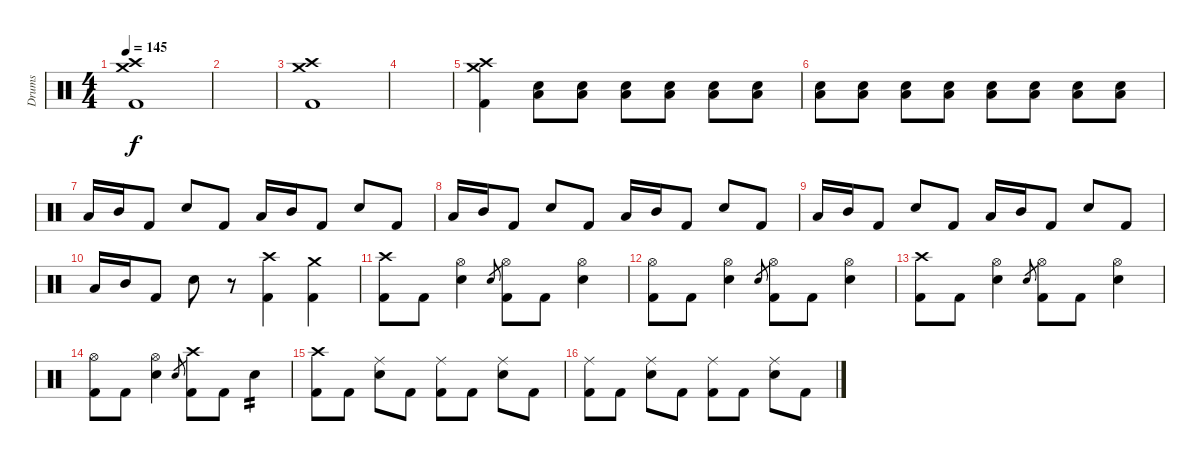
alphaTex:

\track ("Drums" "Drums") {instrument percussion}
\staff {score}
\articulation defaults
\ts (4 4)
\tempo 145
\clef neutral
\ks c
("Kick (hit) 2" "Crash high (hit)" "Crash medium (hit)").1{dy f} |
|
("Kick (hit) 2" "Crash high (hit)" "Crash medium (hit)").1 |
|
("Kick (hit) 2" "Crash high (hit)" "Crash medium (hit)").4 ("Electric Snare (hit)" "Low Tom (hit)").8 ("Electric Snare (hit)" "Low Tom (hit)").8 ("Electric Snare (hit)" "Low Tom (hit)").8 ("Electric Snare (hit)" "Low Tom (hit)").8 ("Electric Snare (hit)" "Low Tom (hit)").8 ("Electric Snare (hit)" "Low Tom (hit)").8 |
("Electric Snare (hit)" "Low Tom (hit)").8 ("Electric Snare (hit)" "Low Tom (hit)").8 ("Electric Snare (hit)" "Low Tom (hit)").8 ("Electric Snare (hit)" "Low Tom (hit)").8 ("Electric Snare (hit)" "Low Tom (hit)").8 ("Electric Snare (hit)" "Low Tom (hit)").8 ("Electric Snare (hit)" "Low Tom (hit)").8 ("Electric Snare (hit)" "Low Tom (hit)").8 |
"Low Tom (hit)".16 "Mid Tom (hit)".16 "Kick (hit) 2".8 "Electric Snare (hit)".8 "Kick (hit) 2".8 "Low Tom (hit)".16 "Mid Tom (hit)".16 "Kick (hit) 2".8 "Electric Snare (hit)".8 "Kick (hit) 2".8 |
"Low Tom (hit)".16 "Mid Tom (hit)".16 "Kick (hit) 2".8 "Electric Snare (hit)".8 "Kick (hit) 2".8 "Low Tom (hit)".16 "Mid Tom (hit)".16 "Kick (hit) 2".8 "Electric Snare (hit)".8 "Kick (hit) 2".8 |
"Low Tom (hit)".16 "Mid Tom (hit)".16 "Kick (hit) 2".8 "Electric Snare (hit)".8 "Kick (hit) 2".8 "Low Tom (hit)".16 "Mid Tom (hit)".16 "Kick (hit) 2".8 "Electric Snare (hit)".8 "Kick (hit) 2".8 |
"Low Tom (hit)".16 "Mid Tom (hit)".16 "Kick (hit) 2".8 "Electric Snare (hit)".8 r.8 ("Kick (hit) 2" "Crash high (hit)").4 ("Kick (hit) 2" "Crash medium (hit)").4 |
("Kick (hit) 2" "Crash high (hit)").8 "Kick (hit) 2".8 ("Electric Snare (hit)" "Hi-Hat (open)").4 "Electric Snare (hit)".8{gr} ("Kick (hit) 2" "Hi-Hat (open)").8 "Kick (hit) 2".8 ("Electric Snare (hit)" "Hi-Hat (open)").4 |
("Kick (hit) 2" "Hi-Hat (open)").8 "Kick (hit) 2".8 ("Electric Snare (hit)" "Hi-Hat (open)").4 "Electric Snare (hit)".8{gr} ("Kick (hit) 2" "Hi-Hat (open)").8 "Kick (hit) 2".8 ("Electric Snare (hit)" "Hi-Hat (open)").4 |
("Kick (hit) 2" "Crash high (hit)").8 "Kick (hit) 2".8 ("Electric Snare (hit)" "Hi-Hat (open)").4 "Electric Snare (hit)".8{gr} ("Kick (hit) 2" "Hi-Hat (open)").8 "Kick (hit) 2".8 ("Electric Snare (hit)" "Hi-Hat (open)").4 |
("Kick (hit) 2" "Hi-Hat (open)").8 "Kick (hit) 2".8 ("Electric Snare (hit)" "Hi-Hat (open)").4 "Electric Snare (hit)".8{gr} ("Kick (hit) 2" "Crash high (hit)").8 "Kick (hit) 2".8 "Electric Snare (hit)".4{tp 2} |
("Kick (hit) 2" "Crash high (hit)").8 "Kick (hit) 2".8 ("Electric Snare (hit)" "Ride (middle)").8 "Kick (hit) 2".8 ("Kick (hit) 2" "Ride (middle)").8 "Kick (hit) 2".8 ("Electric Snare (hit)" "Ride (middle)").8 "Kick (hit) 2".8 |
("Kick (hit) 2" "Ride (middle)").8 "Kick (hit) 2".8 ("Electric Snare (hit)" "Ride (middle)").8 "Kick (hit) 2".8 ("Kick (hit) 2" "Ride (middle)").8 "Kick (hit) 2".8 ("Electric Snare (hit)" "Ride (middle)").8 "Kick (hit) 2".8
